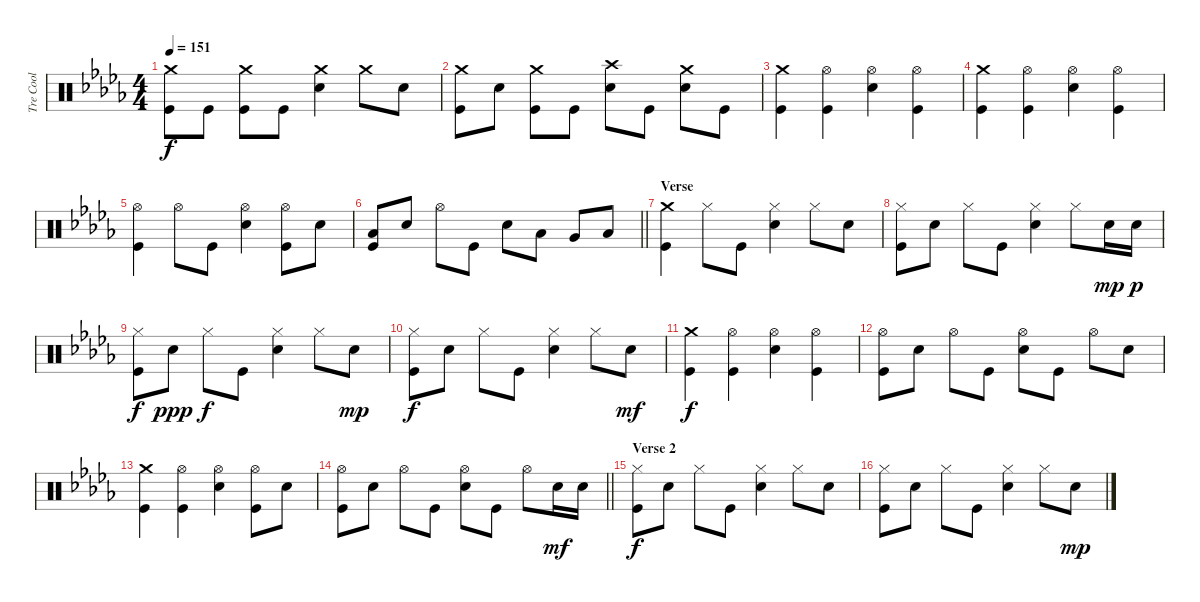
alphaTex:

\track ("Tre Cool" "Tre Cool") {instrument percussion}
\staff {score}
\articulation defaults
\ts (4 4)
\tempo 151
\clef neutral
\ks db
("Crash medium (hit)" "Kick (hit)").8{dy f} "Kick (hit)".8 ("Crash medium (hit)" "Kick (hit)").8 "Kick (hit)".8 ("Crash medium (hit)" "Electric Snare (hit)").4 "Crash medium (hit)".8 "Electric Snare (hit)".8 |
("Crash medium (hit)" "Kick (hit)").8 "Electric Snare (hit)".8 ("Crash medium (hit)" "Kick (hit)").8 "Kick (hit)".8 ("Crash high (hit)" "Electric Snare (hit)").8 "Kick (hit)".8 ("Crash medium (hit)" "Electric Snare (hit)").8 "Kick (hit)".8 |
("Crash medium (hit)" "Kick (hit)").4 ("Hi-Hat (open)" "Kick (hit)").4 ("Hi-Hat (open)" "Electric Snare (hit)").4 ("Hi-Hat (open)" "Kick (hit)").4 |
("Crash medium (hit)" "Kick (hit)").4 ("Hi-Hat (open)" "Kick (hit)").4 ("Hi-Hat (open)" "Electric Snare (hit)").4 ("Hi-Hat (open)" "Kick (hit)").4 |
("Hi-Hat (open)" "Kick (hit)").4 "Hi-Hat (open)".8 "Kick (hit)".8 ("Hi-Hat (open)" "Electric Snare (hit)").4 ("Hi-Hat (open)" "Kick (hit)").8 "Electric Snare (hit)".8 |
\barLineRight lightlight
("Low Tom (hit)" "Kick (hit)").8 "Electric Snare (hit)".8 "Hi-Hat (open)".8 "Kick (hit)".8 "Electric Snare (hit)".8 "Low Tom (hit)".8 "Very Low Tom (hit)".8 "Low Floor Tom (hit)".8 |
\section ("" "Verse")
("Crash medium (hit)" "Kick (hit)").4 "Hi-Hat (closed)".8 "Kick (hit)".8 ("Hi-Hat (closed)" "Electric Snare (hit)").4 "Hi-Hat (closed)".8 "Electric Snare (hit)".8 |
("Hi-Hat (closed)" "Kick (hit)").8 "Electric Snare (hit)".8 "Hi-Hat (closed)".8 "Kick (hit)".8 ("Hi-Hat (closed)" "Electric Snare (hit)").4 "Hi-Hat (closed)".8 "Electric Snare (hit)".16{dy mp} "Electric Snare (hit)".16{dy p} |
("Hi-Hat (closed)" "Kick (hit)").8{dy f} "Electric Snare (hit)".8{dy ppp} "Hi-Hat (closed)".8{dy f} "Kick (hit)".8 ("Hi-Hat (closed)" "Electric Snare (hit)").4 "Hi-Hat (closed)".8 "Electric Snare (hit)".8{dy mp} |
("Hi-Hat (closed)" "Kick (hit)").8{dy f} "Electric Snare (hit)".8 "Hi-Hat (closed)".8 "Kick (hit)".8 ("Hi-Hat (closed)" "Electric Snare (hit)").4 "Hi-Hat (closed)".8 "Electric Snare (hit)".8{dy mf} |
("Crash medium (hit)" "Kick (hit)").4{dy f} ("Hi-Hat (open)" "Kick (hit)").4 ("Hi-Hat (open)" "Electric Snare (hit)").4 ("Hi-Hat (open)" "Kick (hit)").4 |
("Hi-Hat (open)" "Kick (hit)").8 "Electric Snare (hit)".8 "Hi-Hat (open)".8 "Kick (hit)".8 ("Hi-Hat (open)" "Electric Snare (hit)").8 "Kick (hit)".8 "Hi-Hat (open)".8 "Electric Snare (hit)".8 |
("Crash medium (hit)" "Kick (hit)").4 ("Hi-Hat (open)" "Kick (hit)").4 ("Hi-Hat (open)" "Electric Snare (hit)").4 ("Hi-Hat (open)" "Kick (hit)").8 "Electric Snare (hit)".8 |
\barLineRight lightlight
("Hi-Hat (open)" "Kick (hit)").8 "Electric Snare (hit)".8 "Hi-Hat (open)".8 "Kick (hit)".8 ("Hi-Hat (open)" "Electric Snare (hit)").8 "Kick (hit)".8 "Hi-Hat (open)".8 "Electric Snare (hit)".16{dy mf} "Electric Snare (hit)".16 |
\section ("" "Verse 2")
("Hi-Hat (closed)" "Kick (hit)").8{dy f} "Electric Snare (hit)".8 "Hi-Hat (closed)".8 "Kick (hit)".8 ("Hi-Hat (closed)" "Electric Snare (hit)").4 "Hi-Hat (closed)".8 "Electric Snare (hit)".8 |
("Hi-Hat (closed)" "Kick (hit)").8 "Electric Snare (hit)".8 "Hi-Hat (closed)".8 "Kick (hit)".8 ("Hi-Hat (closed)" "Electric Snare (hit)").4 "Hi-Hat (closed)".8 "Electric Snare (hit)".8{dy mp}
